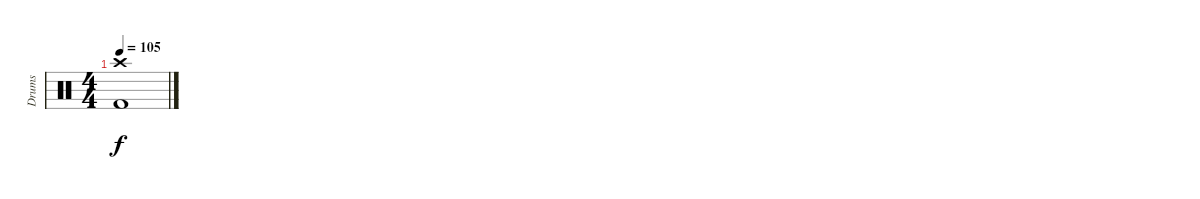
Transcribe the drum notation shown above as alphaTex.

\track ("Drums" "Drums") {instrument percussion}
\staff {score}
\articulation defaults
\ts (4 4)
\tempo 105
\clef neutral
\ks c
("Crash high (hit)" "Kick (hit) 2").1{dy f}
